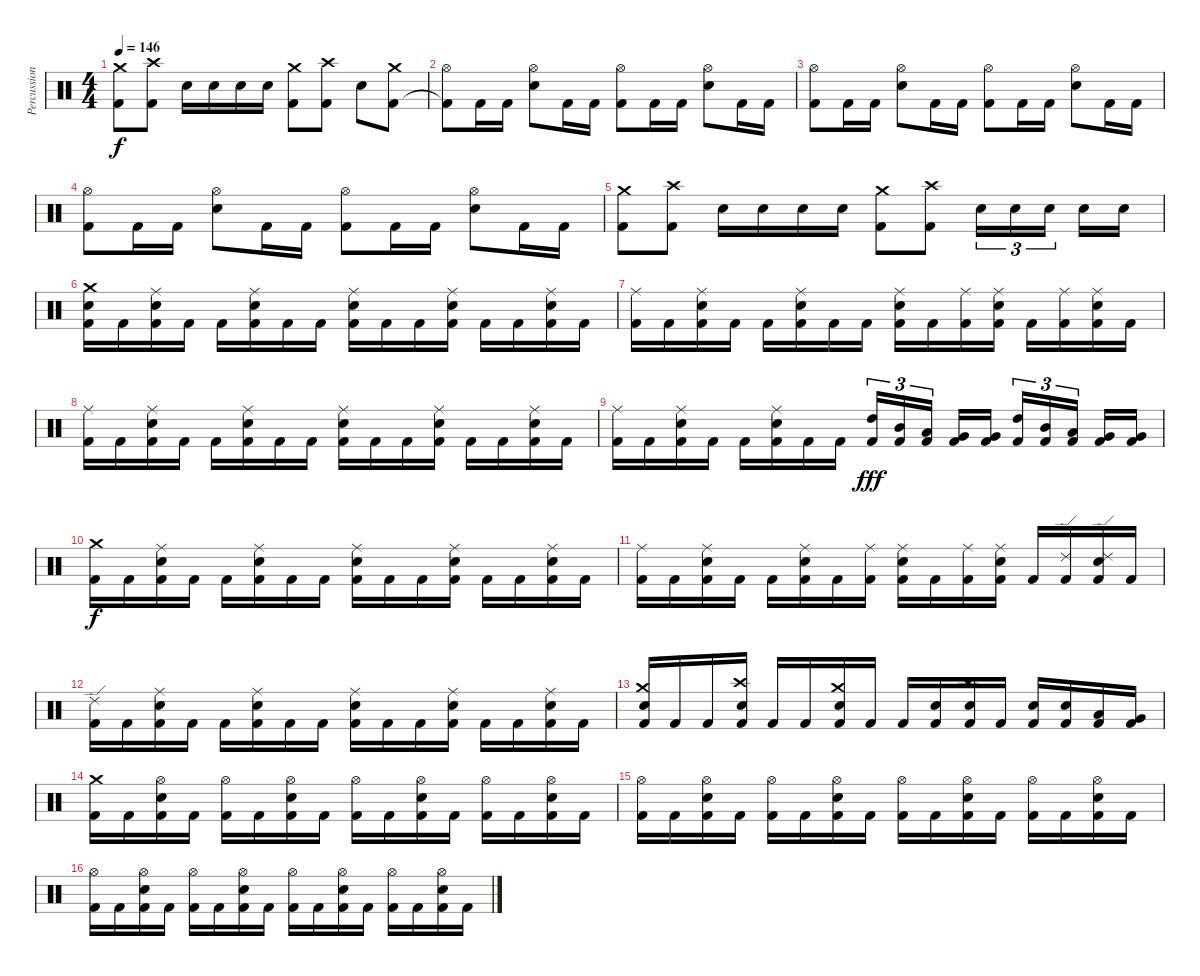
\track ("Percussion" "Percussion") {instrument percussion}
\staff {score}
\articulation defaults
\ts (4 4)
\tempo 146
\clef neutral
\ks c
("Kick (hit) 2" "Crash medium (hit)").8{dy f} ("Kick (hit) 2" "Crash high (hit)").8 "Electric Snare (hit)".16 "Electric Snare (hit)".16 "Electric Snare (hit)".16 "Electric Snare (hit)".16 ("Kick (hit) 2" "Crash medium (hit)").8 ("Kick (hit) 2" "Crash high (hit)").8 "Electric Snare (hit)".8 ("Kick (hit) 2" "Crash medium (hit)").8 |
("Kick (hit) 2"{t} "Hi-Hat (open)").8 "Kick (hit) 2".16 "Kick (hit) 2".16 ("Electric Snare (hit)" "Hi-Hat (open)").8 "Kick (hit) 2".16 "Kick (hit) 2".16 ("Kick (hit) 2" "Hi-Hat (open)").8 "Kick (hit) 2".16 "Kick (hit) 2".16 ("Electric Snare (hit)" "Hi-Hat (open)").8 "Kick (hit) 2".16 "Kick (hit) 2".16 |
("Kick (hit) 2" "Hi-Hat (open)").8 "Kick (hit) 2".16 "Kick (hit) 2".16 ("Electric Snare (hit)" "Hi-Hat (open)").8 "Kick (hit) 2".16 "Kick (hit) 2".16 ("Kick (hit) 2" "Hi-Hat (open)").8 "Kick (hit) 2".16 "Kick (hit) 2".16 ("Electric Snare (hit)" "Hi-Hat (open)").8 "Kick (hit) 2".16 "Kick (hit) 2".16 |
("Kick (hit) 2" "Hi-Hat (open)").8 "Kick (hit) 2".16 "Kick (hit) 2".16 ("Electric Snare (hit)" "Hi-Hat (open)").8 "Kick (hit) 2".16 "Kick (hit) 2".16 ("Kick (hit) 2" "Hi-Hat (open)").8 "Kick (hit) 2".16 "Kick (hit) 2".16 ("Electric Snare (hit)" "Hi-Hat (open)").8 "Kick (hit) 2".16 "Kick (hit) 2".16 |
("Kick (hit) 2" "Crash medium (hit)").8 ("Kick (hit) 2" "Crash high (hit)").8 "Electric Snare (hit)".16 "Electric Snare (hit)".16 "Electric Snare (hit)".16 "Electric Snare (hit)".16 ("Kick (hit) 2" "Crash medium (hit)").8 ("Kick (hit) 2" "Crash high (hit)").8 "Electric Snare (hit)".16{tu (3 2)} "Electric Snare (hit)".16{tu (3 2)} "Electric Snare (hit)".16{tu (3 2) beam splitsecondary} "Electric Snare (hit)".16 "Electric Snare (hit)".16 |
("Kick (hit) 2" "Electric Snare (hit)" "Crash medium (hit)").16 "Kick (hit) 2".16 ("Kick (hit) 2" "Electric Snare (hit)" "Ride (middle)").16 "Kick (hit) 2".16 "Kick (hit) 2".16 ("Kick (hit) 2" "Electric Snare (hit)" "Ride (middle)").16 "Kick (hit) 2".16 "Kick (hit) 2".16 ("Kick (hit) 2" "Electric Snare (hit)" "Ride (middle)").16 "Kick (hit) 2".16 "Kick (hit) 2".16 ("Kick (hit) 2" "Electric Snare (hit)" "Ride (middle)").16 "Kick (hit) 2".16 "Kick (hit) 2".16 ("Kick (hit) 2" "Electric Snare (hit)" "Ride (middle)").16 "Kick (hit) 2".16 |
("Kick (hit) 2" "Ride (middle)").16 "Kick (hit) 2".16 ("Kick (hit) 2" "Electric Snare (hit)" "Ride (middle)").16 "Kick (hit) 2".16 "Kick (hit) 2".16 ("Kick (hit) 2" "Electric Snare (hit)" "Ride (middle)").16 "Kick (hit) 2".16 "Kick (hit) 2".16 ("Kick (hit) 2" "Electric Snare (hit)" "Ride (middle)").16 "Kick (hit) 2".16 ("Kick (hit) 2" "Ride (middle)").16 ("Kick (hit) 2" "Electric Snare (hit)" "Ride (middle)").16 "Kick (hit) 2".16 ("Kick (hit) 2" "Ride (middle)").16 ("Kick (hit) 2" "Electric Snare (hit)" "Ride (middle)").16 "Kick (hit) 2".16 |
("Kick (hit) 2" "Ride (middle)").16 "Kick (hit) 2".16 ("Kick (hit) 2" "Electric Snare (hit)" "Ride (middle)").16 "Kick (hit) 2".16 "Kick (hit) 2".16 ("Kick (hit) 2" "Electric Snare (hit)" "Ride (middle)").16 "Kick (hit) 2".16 "Kick (hit) 2".16 ("Kick (hit) 2" "Electric Snare (hit)" "Ride (middle)").16 "Kick (hit) 2".16 "Kick (hit) 2".16 ("Kick (hit) 2" "Electric Snare (hit)" "Ride (middle)").16 "Kick (hit) 2".16 "Kick (hit) 2".16 ("Kick (hit) 2" "Electric Snare (hit)" "Ride (middle)").16 "Kick (hit) 2".16 |
("Kick (hit) 2" "Ride (middle)").16 "Kick (hit) 2".16 ("Kick (hit) 2" "Electric Snare (hit)" "Ride (middle)").16 "Kick (hit) 2".16 "Kick (hit) 2".16 ("Kick (hit) 2" "Electric Snare (hit)" "Ride (middle)").16 "Kick (hit) 2".16 "Kick (hit) 2".16 ("Kick (hit) 2" "High Tom (hit)").16{tu (3 2) dy fff} ("Kick (hit) 2" "Mid Tom (hit)").16{tu (3 2)} ("Kick (hit) 2" "Low Tom (hit)").16{tu (3 2) beam splitsecondary} ("Kick (hit) 2" "Very Low Tom (hit)").16 ("Kick (hit) 2" "Very Low Tom (hit)").16 ("Kick (hit) 2" "High Tom (hit)").16{tu (3 2)} ("Kick (hit) 2" "Mid Tom (hit)").16{tu (3 2)} ("Kick (hit) 2" "Low Tom (hit)").16{tu (3 2) beam splitsecondary} ("Kick (hit) 2" "Very Low Tom (hit)").16 ("Kick (hit) 2" "Very Low Tom (hit)").16 |
("Kick (hit) 2" "Crash medium (hit)").16{dy f} "Kick (hit) 2".16 ("Kick (hit) 2" "Electric Snare (hit)" "Ride (middle)").16 "Kick (hit) 2".16 "Kick (hit) 2".16 ("Kick (hit) 2" "Electric Snare (hit)" "Ride (middle)").16 "Kick (hit) 2".16 "Kick (hit) 2".16 ("Kick (hit) 2" "Electric Snare (hit)" "Ride (middle)").16 "Kick (hit) 2".16 "Kick (hit) 2".16 ("Kick (hit) 2" "Electric Snare (hit)" "Ride (middle)").16 "Kick (hit) 2".16 "Kick (hit) 2".16 ("Kick (hit) 2" "Electric Snare (hit)" "Ride (middle)").16 "Kick (hit) 2".16 |
("Kick (hit) 2" "Ride (middle)").16 "Kick (hit) 2".16 ("Kick (hit) 2" "Electric Snare (hit)" "Ride (middle)").16 "Kick (hit) 2".16 "Kick (hit) 2".16 ("Kick (hit) 2" "Electric Snare (hit)" "Ride (middle)").16 "Kick (hit) 2".16 ("Kick (hit) 2" "Ride (middle)").16 ("Kick (hit) 2" "Electric Snare (hit)" "Ride (middle)").16 "Kick (hit) 2".16 ("Kick (hit) 2" "Ride (middle)").16 ("Kick (hit) 2" "Electric Snare (hit)" "Ride (middle)").16 "Kick (hit) 2".16 ("Kick (hit) 2" "Ride (edge) 2").16 ("Kick (hit) 2" "Electric Snare (hit)" "Ride (edge) 2").16 "Kick (hit) 2".16 |
("Kick (hit) 2" "Ride (edge) 2").16 "Kick (hit) 2".16 ("Kick (hit) 2" "Electric Snare (hit)" "Ride (middle)").16 "Kick (hit) 2".16 "Kick (hit) 2".16 ("Kick (hit) 2" "Electric Snare (hit)" "Ride (middle)").16 "Kick (hit) 2".16 "Kick (hit) 2".16 ("Kick (hit) 2" "Electric Snare (hit)" "Ride (middle)").16 "Kick (hit) 2".16 "Kick (hit) 2".16 ("Kick (hit) 2" "Electric Snare (hit)" "Ride (middle)").16 "Kick (hit) 2".16 "Kick (hit) 2".16 ("Kick (hit) 2" "Electric Snare (hit)" "Ride (middle)").16 "Kick (hit) 2".16 |
("Kick (hit) 2" "Electric Snare (hit)" "Crash medium (hit)").16 "Kick (hit) 2".16 "Kick (hit) 2".16 ("Kick (hit) 2" "Electric Snare (hit)" "Crash high (hit)").16 "Kick (hit) 2".16 "Kick (hit) 2".16 ("Kick (hit) 2" "Electric Snare (hit)" "Crash medium (hit)").16 "Kick (hit) 2".16 "Kick (hit) 2".16 ("Kick (hit) 2" "Electric Snare (hit)").16 ("Kick (hit) 2" "Electric Snare (hit)" "Crash high (hit)").16 "Kick (hit) 2".16 ("Kick (hit) 2" "Electric Snare (hit)").16 ("Kick (hit) 2" "Electric Snare (hit)").16 ("Kick (hit) 2" "Low Tom (hit)").16 ("Kick (hit) 2" "Very Low Tom (hit)").16 |
("Kick (hit) 2" "Crash medium (hit)").16 "Kick (hit) 2".16 ("Kick (hit) 2" "Electric Snare (hit)" "Hi-Hat (open)").16 "Kick (hit) 2".16 ("Kick (hit) 2" "Hi-Hat (open)").16 "Kick (hit) 2".16 ("Kick (hit) 2" "Electric Snare (hit)" "Hi-Hat (open)").16 "Kick (hit) 2".16 ("Kick (hit) 2" "Hi-Hat (open)").16 "Kick (hit) 2".16 ("Kick (hit) 2" "Electric Snare (hit)" "Hi-Hat (open)").16 "Kick (hit) 2".16 ("Kick (hit) 2" "Hi-Hat (open)").16 "Kick (hit) 2".16 ("Kick (hit) 2" "Electric Snare (hit)" "Hi-Hat (open)").16 "Kick (hit) 2".16 |
("Kick (hit) 2" "Hi-Hat (open)").16 "Kick (hit) 2".16 ("Kick (hit) 2" "Electric Snare (hit)" "Hi-Hat (open)").16 "Kick (hit) 2".16 ("Kick (hit) 2" "Hi-Hat (open)").16 "Kick (hit) 2".16 ("Kick (hit) 2" "Electric Snare (hit)" "Hi-Hat (open)").16 "Kick (hit) 2".16 ("Kick (hit) 2" "Hi-Hat (open)").16 "Kick (hit) 2".16 ("Kick (hit) 2" "Electric Snare (hit)" "Hi-Hat (open)").16 "Kick (hit) 2".16 ("Kick (hit) 2" "Hi-Hat (open)").16 "Kick (hit) 2".16 ("Kick (hit) 2" "Electric Snare (hit)" "Hi-Hat (open)").16 "Kick (hit) 2".16 |
("Kick (hit) 2" "Hi-Hat (open)").16 "Kick (hit) 2".16 ("Kick (hit) 2" "Electric Snare (hit)" "Hi-Hat (open)").16 "Kick (hit) 2".16 ("Kick (hit) 2" "Hi-Hat (open)").16 "Kick (hit) 2".16 ("Kick (hit) 2" "Electric Snare (hit)" "Hi-Hat (open)").16 "Kick (hit) 2".16 ("Kick (hit) 2" "Hi-Hat (open)").16 "Kick (hit) 2".16 ("Kick (hit) 2" "Electric Snare (hit)" "Hi-Hat (open)").16 "Kick (hit) 2".16 ("Kick (hit) 2" "Hi-Hat (open)").16 "Kick (hit) 2".16 ("Kick (hit) 2" "Electric Snare (hit)" "Hi-Hat (open)").16 "Kick (hit) 2".16
